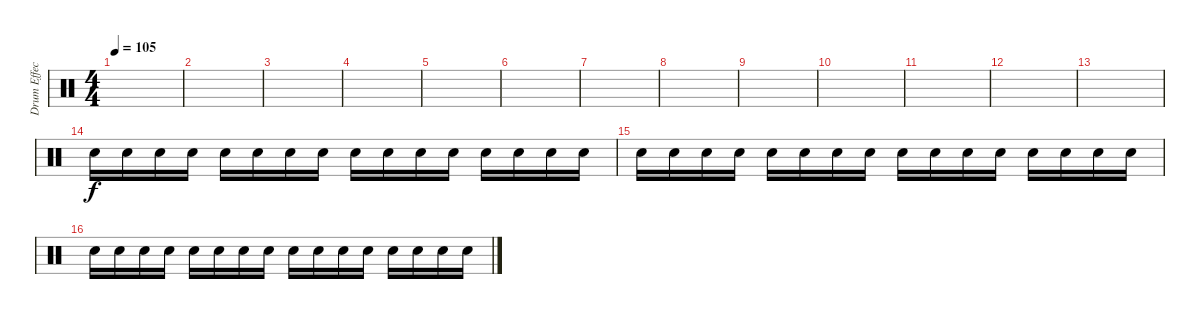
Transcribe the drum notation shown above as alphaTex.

\track ("Drum Effects" "Drum Effec") {instrument percussion}
\staff {score}
\articulation defaults
\ts (4 4)
\tempo 105
\clef neutral
\ks c
|
|
|
|
|
|
|
|
|
|
|
|
|
"Snare (hit) 2".16{volume 16} "Snare (hit) 2".16 "Snare (hit) 2".16 "Snare (hit) 2".16 "Snare (hit) 2".16 "Snare (hit) 2".16 "Snare (hit) 2".16 "Snare (hit) 2".16 "Snare (hit) 2".16 "Snare (hit) 2".16 "Snare (hit) 2".16 "Snare (hit) 2".16 "Snare (hit) 2".16 "Snare (hit) 2".16 "Snare (hit) 2".16 "Snare (hit) 2".16 |
"Snare (hit) 2".16 "Snare (hit) 2".16 "Snare (hit) 2".16 "Snare (hit) 2".16 "Snare (hit) 2".16 "Snare (hit) 2".16 "Snare (hit) 2".16 "Snare (hit) 2".16 "Snare (hit) 2".16 "Snare (hit) 2".16 "Snare (hit) 2".16 "Snare (hit) 2".16 "Snare (hit) 2".16 "Snare (hit) 2".16 "Snare (hit) 2".16 "Snare (hit) 2".16 |
"Snare (hit) 2".16 "Snare (hit) 2".16 "Snare (hit) 2".16 "Snare (hit) 2".16 "Snare (hit) 2".16 "Snare (hit) 2".16 "Snare (hit) 2".16 "Snare (hit) 2".16 "Snare (hit) 2".16 "Snare (hit) 2".16 "Snare (hit) 2".16 "Snare (hit) 2".16 "Snare (hit) 2".16 "Snare (hit) 2".16 "Snare (hit) 2".16 "Snare (hit) 2".16
